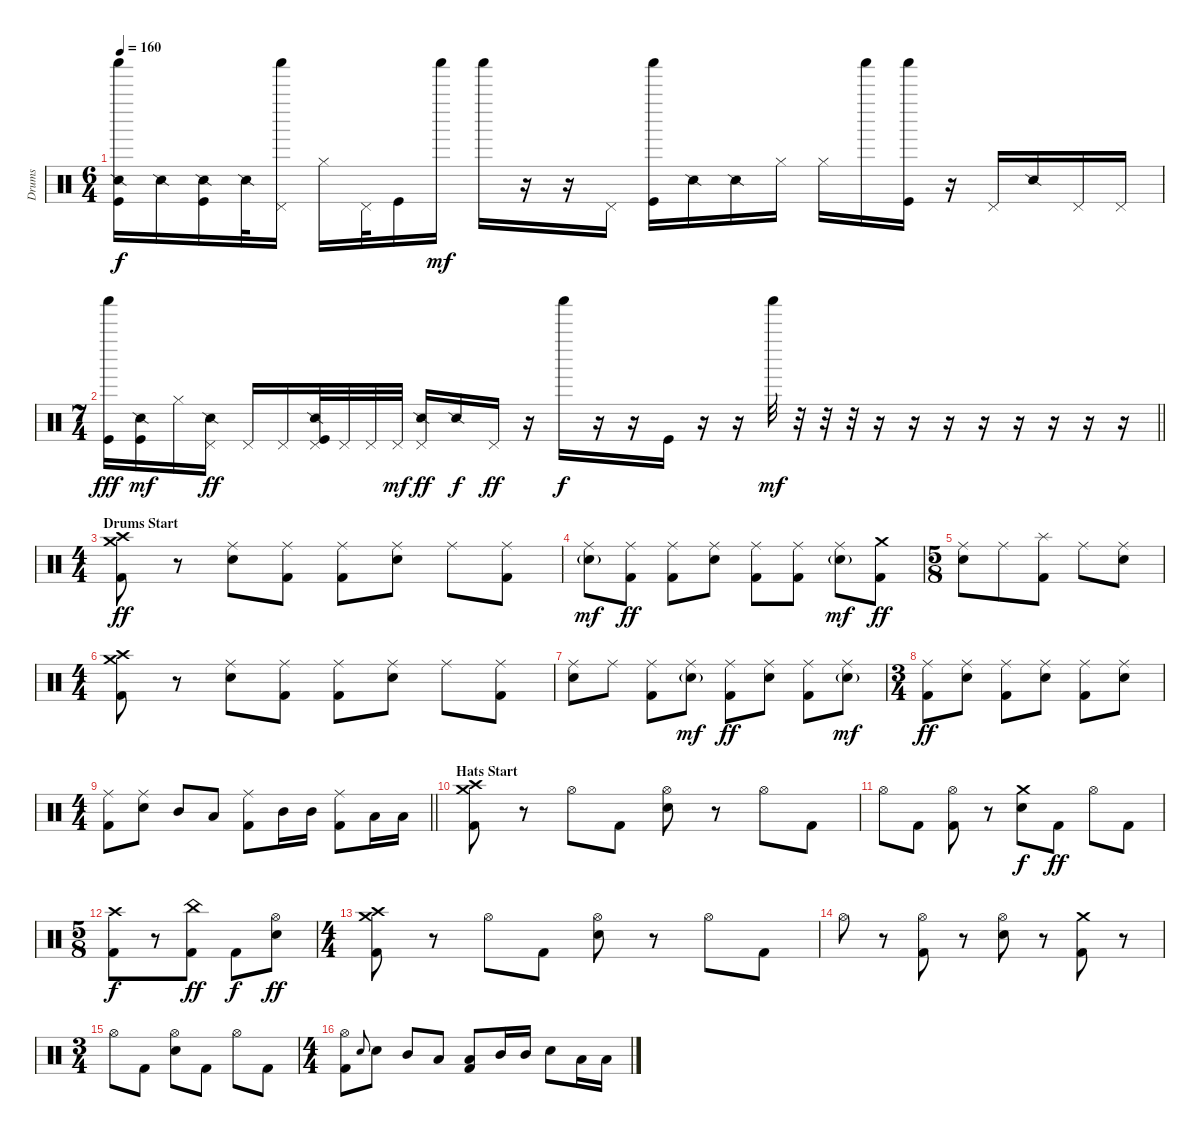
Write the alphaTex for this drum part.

\track ("Drums" "Drums") {instrument percussion}
\staff {score}
\articulation defaults
\ts (6 4)
\tempo 160
\clef neutral
\ks c
("Snare (side stick) 2" "Shaker (hit)" "Kick (hit)").16{dy f} "Snare (side stick) 2".16 ("Snare (side stick) 2" "Kick (hit)").16 "Snare (side stick) 2".32 ("Pedal Hi-Hat (hit)" "Shaker (hit)").16 "Hi-Hat (closed)".16 "Pedal Hi-Hat (hit)".32 "Kick (hit)".16 "Shaker (hit)".16{dy mf} "Shaker (hit)".16 r.16 r.16 "Pedal Hi-Hat (hit)".16 ("Shaker (hit)" "Kick (hit)").16 "Snare (side stick) 2".16 "Snare (side stick) 2".16 "Hi-Hat (closed)".16 "Hi-Hat (closed)".16 "Shaker (hit)".16 ("Shaker (hit)" "Kick (hit)").16 r.16 "Pedal Hi-Hat (hit)".16 "Snare (side stick) 2".16 "Pedal Hi-Hat (hit)".16 "Pedal Hi-Hat (hit)".16 |
\ts (7 4)
\barLineRight lightlight
("Shaker (hit)" "Kick (hit)").16{dy fff} ("Snare (side stick) 2" "Kick (hit)").16{dy mf} "Hi-Hat (closed)".16 ("Pedal Hi-Hat (hit)" "Snare (side stick) 2").16{dy ff} "Pedal Hi-Hat (hit)".16 "Pedal Hi-Hat (hit)".16 ("Pedal Hi-Hat (hit)" "Snare (side stick) 2" "Kick (hit)").32 "Pedal Hi-Hat (hit)".32 "Pedal Hi-Hat (hit)".32 "Pedal Hi-Hat (hit)".32{dy mf} ("Pedal Hi-Hat (hit)" "Snare (side stick) 2").16{dy ff} "Snare (side stick) 2".16{dy f} "Pedal Hi-Hat (hit)".16{dy ff} r.16 "Shaker (hit)".16{dy f} r.16 r.16 "Kick (hit)".16 r.16 r.16 "Shaker (hit)".32{dy mf} r.32 r.32 r.32 r.16 r.16 r.16 r.16 r.16 r.16 r.16 r.16 |
\ts (4 4)
\section ("" "Drums Start")
("Crash high (hit)" "Crash medium (hit)" "Kick (hit) 2").8{dy ff} r.8 ("Ride (middle)" "Electric Snare (hit)").8 ("Ride (middle)" "Kick (hit) 2").8 ("Ride (middle)" "Kick (hit) 2").8 ("Ride (middle)" "Electric Snare (hit)").8 "Ride (middle)".8 ("Ride (middle)" "Kick (hit) 2").8 |
("Ride (middle)" "Electric Snare (hit)"{g}).8{dy mf} ("Ride (middle)" "Kick (hit) 2").8{dy ff} ("Ride (middle)" "Kick (hit) 2").8 ("Ride (middle)" "Electric Snare (hit)").8 ("Ride (middle)" "Kick (hit) 2").8 ("Ride (middle)" "Kick (hit) 2").8 ("Ride (middle)" "Electric Snare (hit)"{g}).8{dy mf} ("Crash medium (hit)" "Kick (hit) 2").8{dy ff} |
\ts (5 8)
("Ride (middle)" "Electric Snare (hit)").8 "Ride (middle)".8 ("Splash (hit)" "Kick (hit) 2").8 "Ride (middle)".8 ("Ride (middle)" "Electric Snare (hit)").8 |
\ts (4 4)
("Crash high (hit)" "Crash medium (hit)" "Kick (hit) 2").8 r.8 ("Ride (middle)" "Electric Snare (hit)").8 ("Ride (middle)" "Kick (hit) 2").8 ("Ride (middle)" "Kick (hit) 2").8 ("Ride (middle)" "Electric Snare (hit)").8 "Ride (middle)".8 ("Ride (middle)" "Kick (hit) 2").8 |
("Ride (middle)" "Electric Snare (hit)").8 "Ride (middle)".8 ("Ride (middle)" "Kick (hit) 2").8 ("Ride (middle)" "Electric Snare (hit)"{g}).8{dy mf} ("Ride (middle)" "Kick (hit) 2").8{dy ff} ("Ride (middle)" "Electric Snare (hit)").8 ("Ride (middle)" "Kick (hit) 2").8 ("Ride (middle)" "Electric Snare (hit)"{g}).8{dy mf} |
\ts (3 4)
("Ride (middle)" "Kick (hit) 2").8{dy ff} ("Ride (middle)" "Electric Snare (hit)").8 ("Ride (middle)" "Kick (hit) 2").8 ("Ride (middle)" "Electric Snare (hit)").8 ("Ride (middle)" "Kick (hit) 2").8 ("Ride (middle)" "Electric Snare (hit)").8 |
\ts (4 4)
\barLineRight lightlight
("Ride (middle)" "Kick (hit) 2").8 ("Ride (middle)" "Electric Snare (hit)").8 "Mid Tom (hit)".8 "Low Tom (hit)".8 ("Ride (middle)" "Kick (hit) 2").8 "Mid Tom (hit)".16 "Mid Tom (hit)".16 ("Ride (middle)" "Kick (hit) 2").8 "Low Tom (hit)".16 "Low Tom (hit)".16 |
\section ("" "Hats Start")
("Crash high (hit)" "Crash medium (hit)" "Kick (hit) 2").8 r.8 "Hi-Hat (open)".8 "Kick (hit) 2".8 ("Hi-Hat (open)" "Electric Snare (hit)").8 r.8 "Hi-Hat (open)".8 "Kick (hit) 2".8 |
"Hi-Hat (open)".8 "Kick (hit) 2".8 ("Hi-Hat (open)" "Kick (hit) 2").8 r.8 ("Crash medium (hit)" "Electric Snare (hit)").8{dy f} "Kick (hit) 2".8{dy ff} "Hi-Hat (open)".8 "Kick (hit) 2".8 |
\ts (5 8)
("Crash high (hit)" "Kick (hit) 2").8{dy f} r.8 ("China (hit)" "Kick (hit) 2").8{dy ff} "Kick (hit) 2".8{dy f} ("Hi-Hat (open)" "Electric Snare (hit)").8{dy ff} |
\ts (4 4)
("Crash high (hit)" "Crash medium (hit)" "Kick (hit) 2").8 r.8 "Hi-Hat (open)".8 "Kick (hit) 2".8 ("Hi-Hat (open)" "Electric Snare (hit)").8 r.8 "Hi-Hat (open)".8 "Kick (hit) 2".8 |
"Hi-Hat (open)".8 r.8 ("Hi-Hat (open)" "Kick (hit) 2").8 r.8 ("Hi-Hat (open)" "Electric Snare (hit)").8 r.8 ("Crash medium (hit)" "Kick (hit) 2").8 r.8 |
\ts (3 4)
"Hi-Hat (open)".8 "Kick (hit) 2".8 ("Hi-Hat (open)" "Electric Snare (hit)").8 "Kick (hit) 2".8 "Hi-Hat (open)".8 "Kick (hit) 2".8 |
\ts (4 4)
("Hi-Hat (open)" "Kick (hit) 2").8 "Electric Snare (hit)".8{gr onbeat} "Electric Snare (hit)".8 "Mid Tom (hit)".8 "Low Tom (hit)".8 ("Low Floor Tom (hit)" "Kick (hit) 2").8 "Mid Tom (hit)".16 "Mid Tom (hit)".16 "Electric Snare (hit)".8 "Low Tom (hit)".16 "Low Tom (hit)".16
